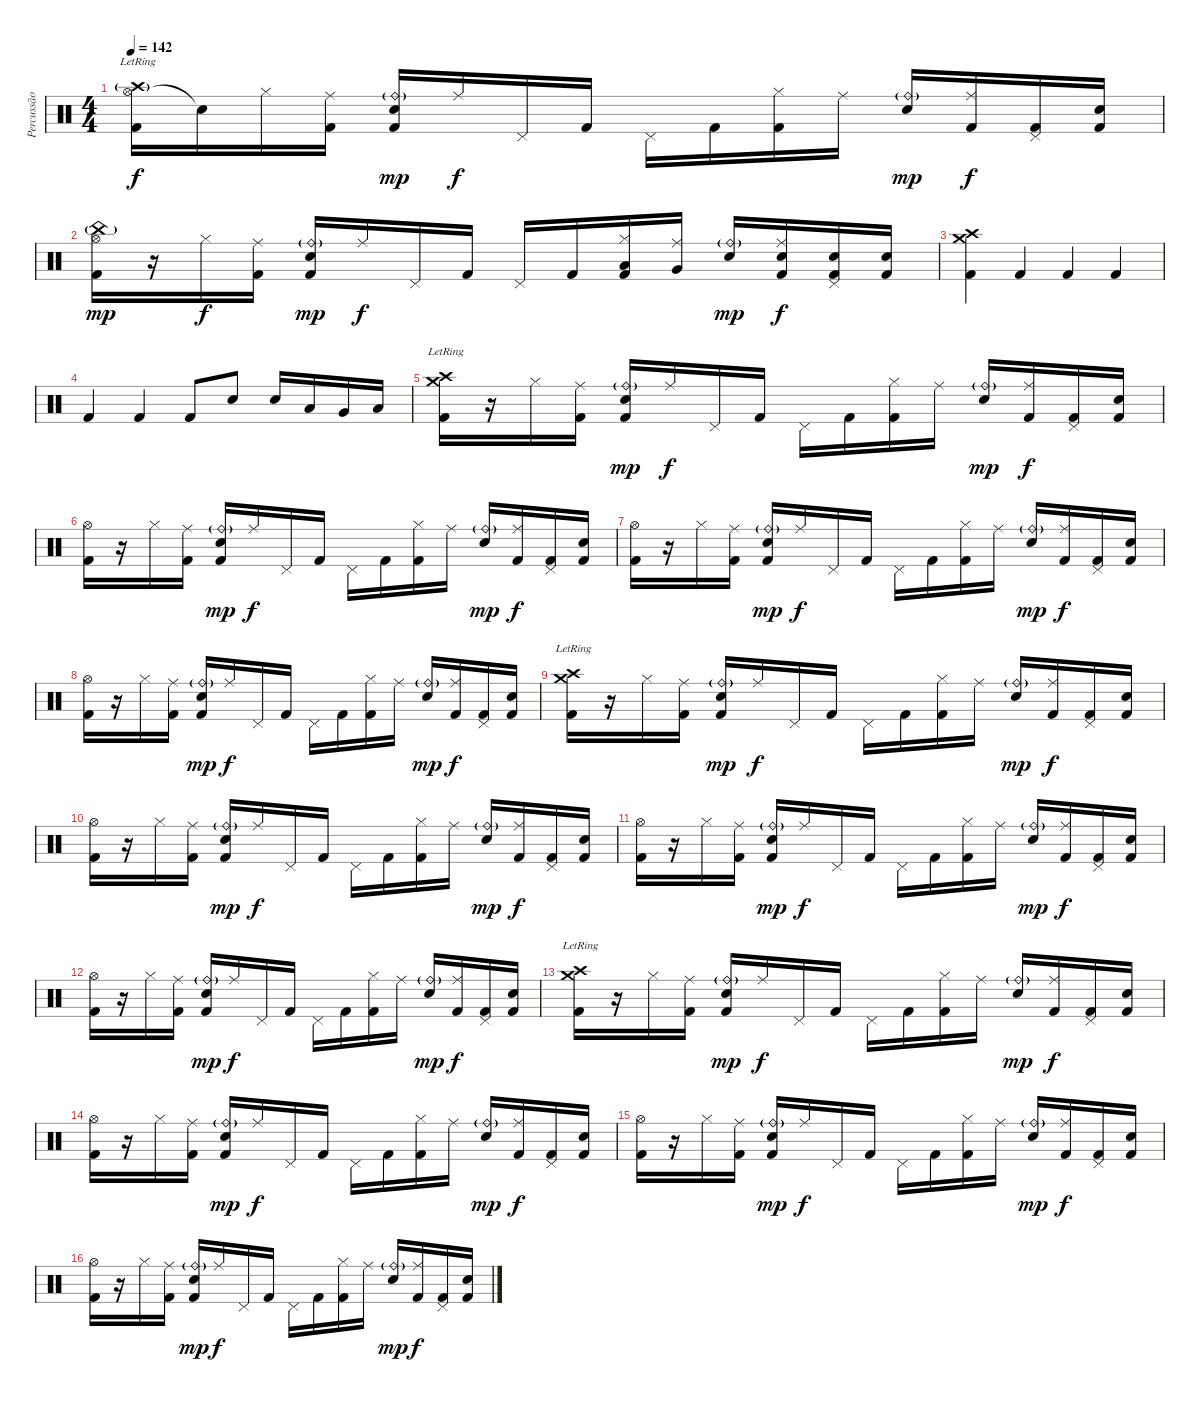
\track ("Percussão" "Percussão") {instrument percussion}
\staff {score}
\articulation defaults
\ts (4 4)
\tempo 142
\clef neutral
\ks c
("Hi-Hat (open)" "Crash high (hit)"{g lr} "Kick (hit) 2").16{dy f} "Snare (hit)"{t}.16 "Hi-Hat (closed)".16 ("Ride (middle)" "Kick (hit) 2").16 ("Ride (bell)"{g} "Snare (hit) 2" "Kick (hit) 2").16{dy mp} "Ride (middle)".16{dy f} "Pedal Hi-Hat (hit)".16 "Kick (hit) 2".16 "Pedal Hi-Hat (hit)".16 "Kick (hit) 2".16 ("Hi-Hat (closed)" "Kick (hit) 2").16 "Ride (middle)".16 ("Ride (bell)"{g} "Snare (hit) 2").16{dy mp} ("Ride (middle)" "Kick (hit) 2").16{dy f} ("Pedal Hi-Hat (hit)" "Kick (hit) 2").16 ("Snare (hit) 2" "Kick (hit) 2").16 |
("Hi-Hat (open)" "China (hit)"{g} "Kick (hit) 2").16{dy mp} r.16 "Hi-Hat (closed)".16{dy f} ("Ride (middle)" "Kick (hit) 2").16 ("Ride (bell)"{g} "Snare (hit) 2" "Kick (hit) 2").16{dy mp} "Ride (middle)".16{dy f} "Pedal Hi-Hat (hit)".16 "Kick (hit) 2".16 "Pedal Hi-Hat (hit)".16 "Kick (hit) 2".16 ("Hi-Hat (closed)" "Low Tom (hit)" "Kick (hit) 2").16 ("Ride (middle)" "Very Low Tom (hit)").16 ("Ride (bell)"{g} "Snare (hit) 2").16{dy mp} ("Ride (middle)" "Snare (hit) 2" "Kick (hit) 2").16{dy f} ("Pedal Hi-Hat (hit)" "Snare (hit) 2" "Kick (hit) 2").16 ("Snare (hit) 2" "Kick (hit) 2").16 |
("Crash medium (hit)" "Crash high (hit)" "Kick (hit) 2").4 "Kick (hit) 2".4 "Kick (hit) 2".4 "Kick (hit) 2".4 |
"Kick (hit) 2".4 "Kick (hit) 2".4 "Kick (hit) 2".8 "Snare (hit) 2".8 "Snare (hit) 2".16 "Low Tom (hit)".16 "Very Low Tom (hit)".16 "Low Floor Tom (hit)".16 |
("Crash medium (hit)" "Crash high (hit)"{lr} "Kick (hit) 2").16 r.16 "Hi-Hat (closed)".16 ("Ride (middle)" "Kick (hit) 2").16 ("Ride (bell)"{g} "Snare (hit) 2" "Kick (hit) 2").16{dy mp} "Ride (middle)".16{dy f} "Pedal Hi-Hat (hit)".16 "Kick (hit) 2".16 "Pedal Hi-Hat (hit)".16 "Kick (hit) 2".16 ("Hi-Hat (closed)" "Kick (hit) 2").16 "Ride (middle)".16 ("Ride (bell)"{g} "Snare (hit) 2").16{dy mp} ("Ride (middle)" "Kick (hit) 2").16{dy f} ("Pedal Hi-Hat (hit)" "Kick (hit) 2").16 ("Snare (hit) 2" "Kick (hit) 2").16 |
("Hi-Hat (open)" "Kick (hit) 2").16 r.16 "Hi-Hat (closed)".16 ("Ride (middle)" "Kick (hit) 2").16 ("Ride (bell)"{g} "Snare (hit) 2" "Kick (hit) 2").16{dy mp} "Ride (middle)".16{dy f} "Pedal Hi-Hat (hit)".16 "Kick (hit) 2".16 "Pedal Hi-Hat (hit)".16 "Kick (hit) 2".16 ("Hi-Hat (closed)" "Kick (hit) 2").16 "Ride (middle)".16 ("Ride (bell)"{g} "Snare (hit) 2").16{dy mp} ("Ride (middle)" "Kick (hit) 2").16{dy f} ("Pedal Hi-Hat (hit)" "Kick (hit) 2").16 ("Snare (hit) 2" "Kick (hit) 2").16 |
("Hi-Hat (open)" "Kick (hit) 2").16 r.16 "Hi-Hat (closed)".16 ("Ride (middle)" "Kick (hit) 2").16 ("Ride (bell)"{g} "Snare (hit) 2" "Kick (hit) 2").16{dy mp} "Ride (middle)".16{dy f} "Pedal Hi-Hat (hit)".16 "Kick (hit) 2".16 "Pedal Hi-Hat (hit)".16 "Kick (hit) 2".16 ("Hi-Hat (closed)" "Kick (hit) 2").16 "Ride (middle)".16 ("Ride (bell)"{g} "Snare (hit) 2").16{dy mp} ("Ride (middle)" "Kick (hit) 2").16{dy f} ("Pedal Hi-Hat (hit)" "Kick (hit) 2").16 ("Snare (hit) 2" "Kick (hit) 2").16 |
("Hi-Hat (open)" "Kick (hit) 2").16 r.16 "Hi-Hat (closed)".16 ("Ride (middle)" "Kick (hit) 2").16 ("Ride (bell)"{g} "Snare (hit) 2" "Kick (hit) 2").16{dy mp} "Ride (middle)".16{dy f} "Pedal Hi-Hat (hit)".16 "Kick (hit) 2".16 "Pedal Hi-Hat (hit)".16 "Kick (hit) 2".16 ("Hi-Hat (closed)" "Kick (hit) 2").16 "Ride (middle)".16 ("Ride (bell)"{g} "Snare (hit) 2").16{dy mp} ("Ride (middle)" "Kick (hit) 2").16{dy f} ("Pedal Hi-Hat (hit)" "Kick (hit) 2").16 ("Snare (hit) 2" "Kick (hit) 2").16 |
("Crash medium (hit)" "Crash high (hit)"{lr} "Kick (hit) 2").16 r.16 "Hi-Hat (closed)".16 ("Ride (middle)" "Kick (hit) 2").16 ("Ride (bell)"{g} "Snare (hit) 2" "Kick (hit) 2").16{dy mp} "Ride (middle)".16{dy f} "Pedal Hi-Hat (hit)".16 "Kick (hit) 2".16 "Pedal Hi-Hat (hit)".16 "Kick (hit) 2".16 ("Hi-Hat (closed)" "Kick (hit) 2").16 "Ride (middle)".16 ("Ride (bell)"{g} "Snare (hit) 2").16{dy mp} ("Ride (middle)" "Kick (hit) 2").16{dy f} ("Pedal Hi-Hat (hit)" "Kick (hit) 2").16 ("Snare (hit) 2" "Kick (hit) 2").16 |
("Hi-Hat (open)" "Kick (hit) 2").16 r.16 "Hi-Hat (closed)".16 ("Ride (middle)" "Kick (hit) 2").16 ("Ride (bell)"{g} "Snare (hit) 2" "Kick (hit) 2").16{dy mp} "Ride (middle)".16{dy f} "Pedal Hi-Hat (hit)".16 "Kick (hit) 2".16 "Pedal Hi-Hat (hit)".16 "Kick (hit) 2".16 ("Hi-Hat (closed)" "Kick (hit) 2").16 "Ride (middle)".16 ("Ride (bell)"{g} "Snare (hit) 2").16{dy mp} ("Ride (middle)" "Kick (hit) 2").16{dy f} ("Pedal Hi-Hat (hit)" "Kick (hit) 2").16 ("Snare (hit) 2" "Kick (hit) 2").16 |
("Hi-Hat (open)" "Kick (hit) 2").16 r.16 "Hi-Hat (closed)".16 ("Ride (middle)" "Kick (hit) 2").16 ("Ride (bell)"{g} "Snare (hit) 2" "Kick (hit) 2").16{dy mp} "Ride (middle)".16{dy f} "Pedal Hi-Hat (hit)".16 "Kick (hit) 2".16 "Pedal Hi-Hat (hit)".16 "Kick (hit) 2".16 ("Hi-Hat (closed)" "Kick (hit) 2").16 "Ride (middle)".16 ("Ride (bell)"{g} "Snare (hit) 2").16{dy mp} ("Ride (middle)" "Kick (hit) 2").16{dy f} ("Pedal Hi-Hat (hit)" "Kick (hit) 2").16 ("Snare (hit) 2" "Kick (hit) 2").16 |
("Hi-Hat (open)" "Kick (hit) 2").16 r.16 "Hi-Hat (closed)".16 ("Ride (middle)" "Kick (hit) 2").16 ("Ride (bell)"{g} "Snare (hit) 2" "Kick (hit) 2").16{dy mp} "Ride (middle)".16{dy f} "Pedal Hi-Hat (hit)".16 "Kick (hit) 2".16 "Pedal Hi-Hat (hit)".16 "Kick (hit) 2".16 ("Hi-Hat (closed)" "Kick (hit) 2").16 "Ride (middle)".16 ("Ride (bell)"{g} "Snare (hit) 2").16{dy mp} ("Ride (middle)" "Kick (hit) 2").16{dy f} ("Pedal Hi-Hat (hit)" "Kick (hit) 2").16 ("Snare (hit) 2" "Kick (hit) 2").16 |
("Crash medium (hit)" "Crash high (hit)"{lr} "Kick (hit) 2").16 r.16 "Hi-Hat (closed)".16 ("Ride (middle)" "Kick (hit) 2").16 ("Ride (bell)"{g} "Snare (hit) 2" "Kick (hit) 2").16{dy mp} "Ride (middle)".16{dy f} "Pedal Hi-Hat (hit)".16 "Kick (hit) 2".16 "Pedal Hi-Hat (hit)".16 "Kick (hit) 2".16 ("Hi-Hat (closed)" "Kick (hit) 2").16 "Ride (middle)".16 ("Ride (bell)"{g} "Snare (hit) 2").16{dy mp} ("Ride (middle)" "Kick (hit) 2").16{dy f} ("Pedal Hi-Hat (hit)" "Kick (hit) 2").16 ("Snare (hit) 2" "Kick (hit) 2").16 |
("Hi-Hat (open)" "Kick (hit) 2").16 r.16 "Hi-Hat (closed)".16 ("Ride (middle)" "Kick (hit) 2").16 ("Ride (bell)"{g} "Snare (hit) 2" "Kick (hit) 2").16{dy mp} "Ride (middle)".16{dy f} "Pedal Hi-Hat (hit)".16 "Kick (hit) 2".16 "Pedal Hi-Hat (hit)".16 "Kick (hit) 2".16 ("Hi-Hat (closed)" "Kick (hit) 2").16 "Ride (middle)".16 ("Ride (bell)"{g} "Snare (hit) 2").16{dy mp} ("Ride (middle)" "Kick (hit) 2").16{dy f} ("Pedal Hi-Hat (hit)" "Kick (hit) 2").16 ("Snare (hit) 2" "Kick (hit) 2").16 |
("Hi-Hat (open)" "Kick (hit) 2").16 r.16 "Hi-Hat (closed)".16 ("Ride (middle)" "Kick (hit) 2").16 ("Ride (bell)"{g} "Snare (hit) 2" "Kick (hit) 2").16{dy mp} "Ride (middle)".16{dy f} "Pedal Hi-Hat (hit)".16 "Kick (hit) 2".16 "Pedal Hi-Hat (hit)".16 "Kick (hit) 2".16 ("Hi-Hat (closed)" "Kick (hit) 2").16 "Ride (middle)".16 ("Ride (bell)"{g} "Snare (hit) 2").16{dy mp} ("Ride (middle)" "Kick (hit) 2").16{dy f} ("Pedal Hi-Hat (hit)" "Kick (hit) 2").16 ("Snare (hit) 2" "Kick (hit) 2").16 |
("Hi-Hat (open)" "Kick (hit) 2").16 r.16 "Hi-Hat (closed)".16 ("Ride (middle)" "Kick (hit) 2").16 ("Ride (bell)"{g} "Snare (hit) 2" "Kick (hit) 2").16{dy mp} "Ride (middle)".16{dy f} "Pedal Hi-Hat (hit)".16 "Kick (hit) 2".16 "Pedal Hi-Hat (hit)".16 "Kick (hit) 2".16 ("Hi-Hat (closed)" "Kick (hit) 2").16 "Ride (middle)".16 ("Ride (bell)"{g} "Snare (hit) 2").16{dy mp} ("Ride (middle)" "Kick (hit) 2").16{dy f} ("Pedal Hi-Hat (hit)" "Kick (hit) 2").16 ("Snare (hit) 2" "Kick (hit) 2").16
